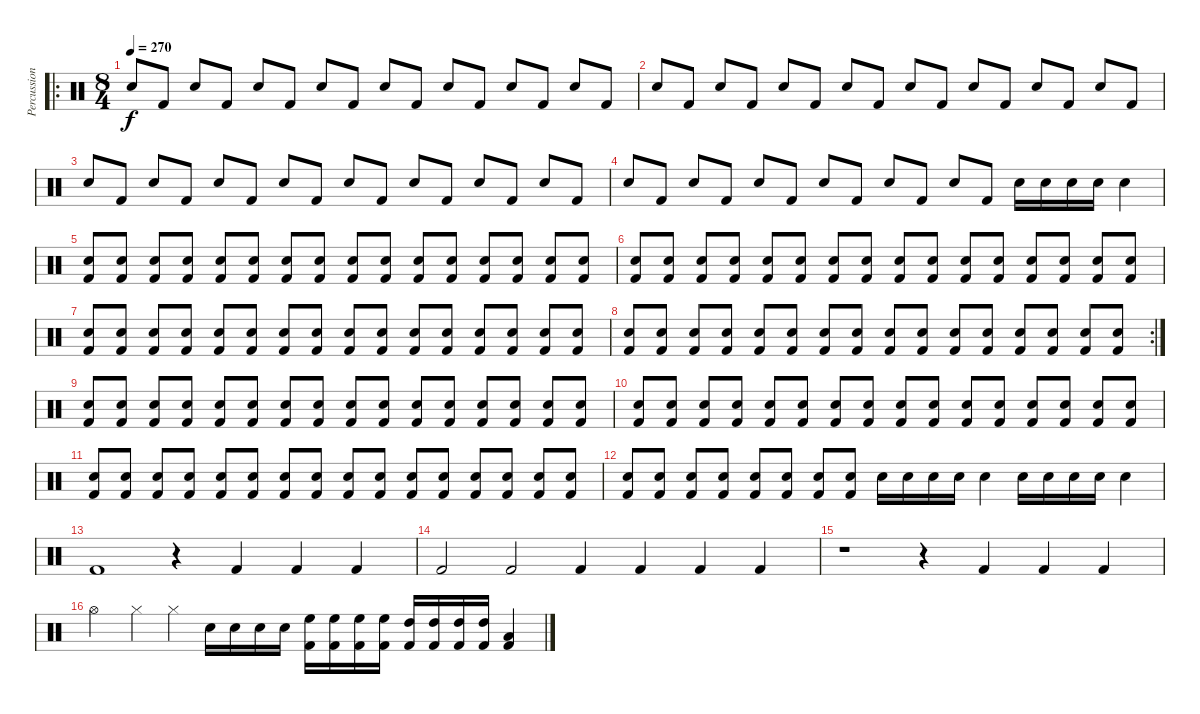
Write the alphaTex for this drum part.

\track ("Percussion" "Percussion") {instrument percussion}
\staff {score}
\articulation defaults
\ro
\ts (8 4)
\tempo 270
\clef neutral
\ks c "Electric Snare (hit)".8{dy f} "Kick (hit) 2".8 "Electric Snare (hit)".8 "Kick (hit) 2".8 "Electric Snare (hit)".8 "Kick (hit) 2".8 "Electric Snare (hit)".8 "Kick (hit) 2".8 "Electric Snare (hit)".8 "Kick (hit) 2".8 "Electric Snare (hit)".8 "Kick (hit) 2".8 "Electric Snare (hit)".8 "Kick (hit) 2".8 "Electric Snare (hit)".8 "Kick (hit) 2".8
|
"Electric Snare (hit)".8 "Kick (hit) 2".8 "Electric Snare (hit)".8 "Kick (hit) 2".8 "Electric Snare (hit)".8 "Kick (hit) 2".8 "Electric Snare (hit)".8 "Kick (hit) 2".8 "Electric Snare (hit)".8 "Kick (hit) 2".8 "Electric Snare (hit)".8 "Kick (hit) 2".8 "Electric Snare (hit)".8 "Kick (hit) 2".8 "Electric Snare (hit)".8 "Kick (hit) 2".8 |
"Electric Snare (hit)".8 "Kick (hit) 2".8 "Electric Snare (hit)".8 "Kick (hit) 2".8 "Electric Snare (hit)".8 "Kick (hit) 2".8 "Electric Snare (hit)".8 "Kick (hit) 2".8 "Electric Snare (hit)".8 "Kick (hit) 2".8 "Electric Snare (hit)".8 "Kick (hit) 2".8 "Electric Snare (hit)".8 "Kick (hit) 2".8 "Electric Snare (hit)".8 "Kick (hit) 2".8 |
"Electric Snare (hit)".8 "Kick (hit) 2".8 "Electric Snare (hit)".8 "Kick (hit) 2".8 "Electric Snare (hit)".8 "Kick (hit) 2".8 "Electric Snare (hit)".8 "Kick (hit) 2".8 "Electric Snare (hit)".8 "Kick (hit) 2".8 "Electric Snare (hit)".8 "Kick (hit) 2".8 "Electric Snare (hit)".16 "Electric Snare (hit)".16 "Electric Snare (hit)".16 "Electric Snare (hit)".16 "Electric Snare (hit)".4 |
("Electric Snare (hit)" "Kick (hit) 2").8 ("Electric Snare (hit)" "Kick (hit) 2").8 ("Electric Snare (hit)" "Kick (hit) 2").8 ("Electric Snare (hit)" "Kick (hit) 2").8 ("Electric Snare (hit)" "Kick (hit) 2").8 ("Electric Snare (hit)" "Kick (hit) 2").8 ("Electric Snare (hit)" "Kick (hit) 2").8 ("Electric Snare (hit)" "Kick (hit) 2").8 ("Electric Snare (hit)" "Kick (hit) 2").8 ("Electric Snare (hit)" "Kick (hit) 2").8 ("Electric Snare (hit)" "Kick (hit) 2").8 ("Electric Snare (hit)" "Kick (hit) 2").8 ("Electric Snare (hit)" "Kick (hit) 2").8 ("Electric Snare (hit)" "Kick (hit) 2").8 ("Electric Snare (hit)" "Kick (hit) 2").8 ("Electric Snare (hit)" "Kick (hit) 2").8 |
("Electric Snare (hit)" "Kick (hit) 2").8 ("Electric Snare (hit)" "Kick (hit) 2").8 ("Electric Snare (hit)" "Kick (hit) 2").8 ("Electric Snare (hit)" "Kick (hit) 2").8 ("Electric Snare (hit)" "Kick (hit) 2").8 ("Electric Snare (hit)" "Kick (hit) 2").8 ("Electric Snare (hit)" "Kick (hit) 2").8 ("Electric Snare (hit)" "Kick (hit) 2").8 ("Electric Snare (hit)" "Kick (hit) 2").8 ("Electric Snare (hit)" "Kick (hit) 2").8 ("Electric Snare (hit)" "Kick (hit) 2").8 ("Electric Snare (hit)" "Kick (hit) 2").8 ("Electric Snare (hit)" "Kick (hit) 2").8 ("Electric Snare (hit)" "Kick (hit) 2").8 ("Electric Snare (hit)" "Kick (hit) 2").8 ("Electric Snare (hit)" "Kick (hit) 2").8 |
("Electric Snare (hit)" "Kick (hit) 2").8 ("Electric Snare (hit)" "Kick (hit) 2").8 ("Electric Snare (hit)" "Kick (hit) 2").8 ("Electric Snare (hit)" "Kick (hit) 2").8 ("Electric Snare (hit)" "Kick (hit) 2").8 ("Electric Snare (hit)" "Kick (hit) 2").8 ("Electric Snare (hit)" "Kick (hit) 2").8 ("Electric Snare (hit)" "Kick (hit) 2").8 ("Electric Snare (hit)" "Kick (hit) 2").8 ("Electric Snare (hit)" "Kick (hit) 2").8 ("Electric Snare (hit)" "Kick (hit) 2").8 ("Electric Snare (hit)" "Kick (hit) 2").8 ("Electric Snare (hit)" "Kick (hit) 2").8 ("Electric Snare (hit)" "Kick (hit) 2").8 ("Electric Snare (hit)" "Kick (hit) 2").8 ("Electric Snare (hit)" "Kick (hit) 2").8 |
\rc 2
("Electric Snare (hit)" "Kick (hit) 2").8 ("Electric Snare (hit)" "Kick (hit) 2").8 ("Electric Snare (hit)" "Kick (hit) 2").8 ("Electric Snare (hit)" "Kick (hit) 2").8 ("Electric Snare (hit)" "Kick (hit) 2").8 ("Electric Snare (hit)" "Kick (hit) 2").8 ("Electric Snare (hit)" "Kick (hit) 2").8 ("Electric Snare (hit)" "Kick (hit) 2").8 ("Electric Snare (hit)" "Kick (hit) 2").8 ("Electric Snare (hit)" "Kick (hit) 2").8 ("Electric Snare (hit)" "Kick (hit) 2").8 ("Electric Snare (hit)" "Kick (hit) 2").8 ("Electric Snare (hit)" "Kick (hit) 2").8 ("Electric Snare (hit)" "Kick (hit) 2").8 ("Electric Snare (hit)" "Kick (hit) 2").8 ("Electric Snare (hit)" "Kick (hit) 2").8 |
("Electric Snare (hit)" "Kick (hit) 2").8 ("Electric Snare (hit)" "Kick (hit) 2").8 ("Electric Snare (hit)" "Kick (hit) 2").8 ("Electric Snare (hit)" "Kick (hit) 2").8 ("Electric Snare (hit)" "Kick (hit) 2").8 ("Electric Snare (hit)" "Kick (hit) 2").8 ("Electric Snare (hit)" "Kick (hit) 2").8 ("Electric Snare (hit)" "Kick (hit) 2").8 ("Electric Snare (hit)" "Kick (hit) 2").8 ("Electric Snare (hit)" "Kick (hit) 2").8 ("Electric Snare (hit)" "Kick (hit) 2").8 ("Electric Snare (hit)" "Kick (hit) 2").8 ("Electric Snare (hit)" "Kick (hit) 2").8 ("Electric Snare (hit)" "Kick (hit) 2").8 ("Electric Snare (hit)" "Kick (hit) 2").8 ("Electric Snare (hit)" "Kick (hit) 2").8 |
("Electric Snare (hit)" "Kick (hit) 2").8 ("Electric Snare (hit)" "Kick (hit) 2").8 ("Electric Snare (hit)" "Kick (hit) 2").8 ("Electric Snare (hit)" "Kick (hit) 2").8 ("Electric Snare (hit)" "Kick (hit) 2").8 ("Electric Snare (hit)" "Kick (hit) 2").8 ("Electric Snare (hit)" "Kick (hit) 2").8 ("Electric Snare (hit)" "Kick (hit) 2").8 ("Electric Snare (hit)" "Kick (hit) 2").8 ("Electric Snare (hit)" "Kick (hit) 2").8 ("Electric Snare (hit)" "Kick (hit) 2").8 ("Electric Snare (hit)" "Kick (hit) 2").8 ("Electric Snare (hit)" "Kick (hit) 2").8 ("Electric Snare (hit)" "Kick (hit) 2").8 ("Electric Snare (hit)" "Kick (hit) 2").8 ("Electric Snare (hit)" "Kick (hit) 2").8 |
("Electric Snare (hit)" "Kick (hit) 2").8 ("Electric Snare (hit)" "Kick (hit) 2").8 ("Electric Snare (hit)" "Kick (hit) 2").8 ("Electric Snare (hit)" "Kick (hit) 2").8 ("Electric Snare (hit)" "Kick (hit) 2").8 ("Electric Snare (hit)" "Kick (hit) 2").8 ("Electric Snare (hit)" "Kick (hit) 2").8 ("Electric Snare (hit)" "Kick (hit) 2").8 ("Electric Snare (hit)" "Kick (hit) 2").8 ("Electric Snare (hit)" "Kick (hit) 2").8 ("Electric Snare (hit)" "Kick (hit) 2").8 ("Electric Snare (hit)" "Kick (hit) 2").8 ("Electric Snare (hit)" "Kick (hit) 2").8 ("Electric Snare (hit)" "Kick (hit) 2").8 ("Electric Snare (hit)" "Kick (hit) 2").8 ("Electric Snare (hit)" "Kick (hit) 2").8 |
("Electric Snare (hit)" "Kick (hit) 2").8 ("Electric Snare (hit)" "Kick (hit) 2").8 ("Electric Snare (hit)" "Kick (hit) 2").8 ("Electric Snare (hit)" "Kick (hit) 2").8 ("Electric Snare (hit)" "Kick (hit) 2").8 ("Electric Snare (hit)" "Kick (hit) 2").8 ("Electric Snare (hit)" "Kick (hit) 2").8 ("Electric Snare (hit)" "Kick (hit) 2").8 "Electric Snare (hit)".16 "Electric Snare (hit)".16 "Electric Snare (hit)".16 "Electric Snare (hit)".16 "Electric Snare (hit)".4 "Electric Snare (hit)".16 "Electric Snare (hit)".16 "Electric Snare (hit)".16 "Electric Snare (hit)".16 "Electric Snare (hit)".4 |
"Kick (hit) 2".1 r.4 "Kick (hit) 2".4 "Kick (hit) 2".4 "Kick (hit) 2".4 |
"Kick (hit) 2".2 "Kick (hit) 2".2 "Kick (hit) 2".4 "Kick (hit) 2".4 "Kick (hit) 2".4 "Kick (hit) 2".4 |
r.1 r.4 "Kick (hit) 2".4 "Kick (hit) 2".4 "Kick (hit) 2".4 |
"Hi-Hat (open)".2 "Hi-Hat (closed)".4 "Hi-Hat (closed)".4 "Electric Snare (hit)".16 "Electric Snare (hit)".16 "Electric Snare (hit)".16 "Electric Snare (hit)".16 ("High Floor Tom (hit)" "Kick (hit) 2").16 ("High Floor Tom (hit)" "Kick (hit) 2").16 ("High Floor Tom (hit)" "Kick (hit) 2").16 ("High Floor Tom (hit)" "Kick (hit) 2").16 ("High Tom (hit)" "Kick (hit) 2").16 ("High Tom (hit)" "Kick (hit) 2").16 ("High Tom (hit)" "Kick (hit) 2").16 ("High Tom (hit)" "Kick (hit) 2").16 ("Low Tom (hit)" "Kick (hit) 2").4
